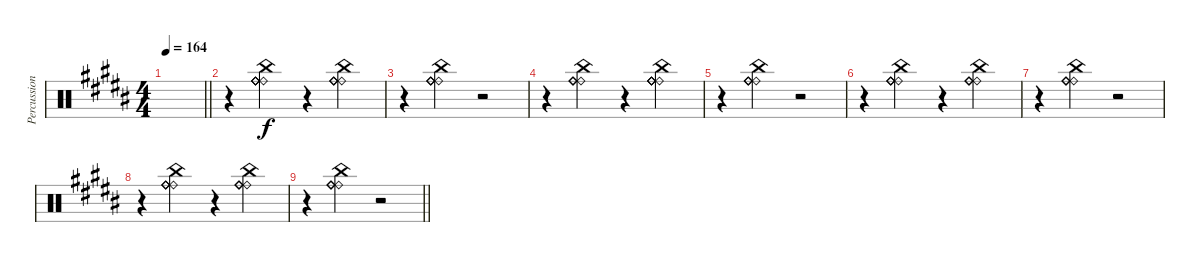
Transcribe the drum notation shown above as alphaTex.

\track ("Percussion" "Percussion") {instrument percussion}
\staff {score}
\articulation defaults
\ts (4 4)
\tempo 164
\clef neutral
\barLineRight lightlight
\ks g#minor
|
r.4 ("China (hit)" "Ride (bell)" "Ride (bell)" "Ride (bell)" "Ride (bell)" "Ride (bell)").4 r.4 ("China (hit)" "Ride (bell)" "Ride (bell)" "Ride (bell)" "Ride (bell)" "Ride (bell)").4 |
r.4 ("China (hit)" "Ride (bell)" "Ride (bell)" "Ride (bell)" "Ride (bell)" "Ride (bell)").4 r.2 |
r.4 ("China (hit)" "Ride (bell)" "Ride (bell)" "Ride (bell)" "Ride (bell)" "Ride (bell)").4 r.4 ("China (hit)" "Ride (bell)" "Ride (bell)" "Ride (bell)" "Ride (bell)" "Ride (bell)").4 |
r.4 ("China (hit)" "Ride (bell)" "Ride (bell)" "Ride (bell)" "Ride (bell)" "Ride (bell)").4 r.2 |
r.4 ("China (hit)" "Ride (bell)" "Ride (bell)" "Ride (bell)" "Ride (bell)" "Ride (bell)").4 r.4 ("China (hit)" "Ride (bell)" "Ride (bell)" "Ride (bell)" "Ride (bell)" "Ride (bell)").4 |
r.4 ("China (hit)" "Ride (bell)" "Ride (bell)" "Ride (bell)" "Ride (bell)" "Ride (bell)").4 r.2 |
r.4 ("China (hit)" "Ride (bell)" "Ride (bell)" "Ride (bell)" "Ride (bell)" "Ride (bell)").4 r.4 ("China (hit)" "Ride (bell)" "Ride (bell)" "Ride (bell)" "Ride (bell)" "Ride (bell)").4 |
\barLineRight lightlight
r.4 ("China (hit)" "Ride (bell)" "Ride (bell)" "Ride (bell)" "Ride (bell)" "Ride (bell)").4 r.2
